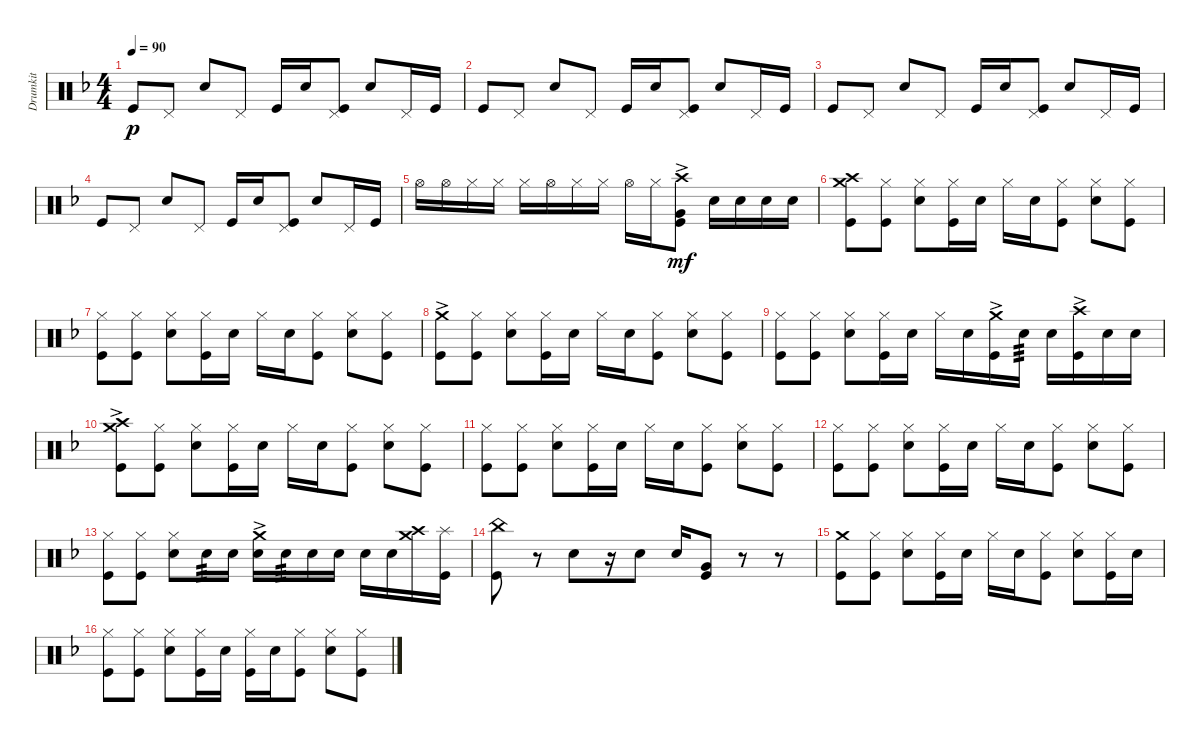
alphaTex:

\track ("Drumkit" "Drumkit") {instrument percussion}
\staff {score}
\articulation defaults
\ts (4 4)
\tempo 90
\clef neutral
\ks f "Kick (hit)".8{dy p} "Pedal Hi-Hat (hit)".8 "Snare (hit) 2".8 "Pedal Hi-Hat (hit)".8 "Kick (hit)".16 "Snare (hit) 2".16
("Kick (hit)" "Pedal Hi-Hat (hit)").8 "Snare (hit) 2".8 "Pedal Hi-Hat (hit)".16 "Kick (hit)".16 |
"Kick (hit)".8 "Pedal Hi-Hat (hit)".8 "Snare (hit) 2".8 "Pedal Hi-Hat (hit)".8 "Kick (hit)".16 "Snare (hit) 2".16 ("Kick (hit)" "Pedal Hi-Hat (hit)").8 "Snare (hit) 2".8 "Pedal Hi-Hat (hit)".16 "Kick (hit)".16 |
"Kick (hit)".8 "Pedal Hi-Hat (hit)".8 "Snare (hit) 2".8 "Pedal Hi-Hat (hit)".8 "Kick (hit)".16 "Snare (hit) 2".16 ("Kick (hit)" "Pedal Hi-Hat (hit)").8 "Snare (hit) 2".8 "Pedal Hi-Hat (hit)".16 "Kick (hit)".16 |
"Kick (hit)".8 "Pedal Hi-Hat (hit)".8 "Snare (hit) 2".8 "Pedal Hi-Hat (hit)".8 "Kick (hit)".16 "Snare (hit) 2".16 ("Kick (hit)" "Pedal Hi-Hat (hit)").8 "Snare (hit) 2".8 "Pedal Hi-Hat (hit)".16 "Kick (hit)".16 |
"Hi-Hat (open)".16 "Hi-Hat (open)".16 "Hi-Hat (closed)".16 "Hi-Hat (closed)".16 "Hi-Hat (closed)".16 "Hi-Hat (open)".16 "Hi-Hat (closed)".16 "Hi-Hat (closed)".16 "Hi-Hat (open)".16 "Hi-Hat (closed)".16 ("Kick (hit)" "Very Low Tom (hit)" "Crash high (hit)"{ac}).8{dy mf} "Snare (hit) 2".16 "Snare (hit) 2".16 "Snare (hit) 2".16 "Snare (hit) 2".16 |
("Kick (hit)" "Crash high (hit)" "Crash medium (hit)").8 ("Kick (hit)" "Hi-Hat (closed)").8 ("Snare (hit) 2" "Hi-Hat (closed)").8 ("Kick (hit)" "Hi-Hat (closed)").16 "Snare (hit) 2".16 "Hi-Hat (closed)".16 "Snare (hit) 2".16 ("Kick (hit)" "Hi-Hat (closed)").8 ("Snare (hit) 2" "Hi-Hat (closed)").8 ("Kick (hit)" "Hi-Hat (closed)").8 |
("Kick (hit)" "Hi-Hat (closed)").8 ("Kick (hit)" "Hi-Hat (closed)").8 ("Snare (hit) 2" "Hi-Hat (closed)").8 ("Kick (hit)" "Hi-Hat (closed)").16 "Snare (hit) 2".16 "Hi-Hat (closed)".16 "Snare (hit) 2".16 ("Kick (hit)" "Hi-Hat (closed)").8 ("Snare (hit) 2" "Hi-Hat (closed)").8 ("Kick (hit)" "Hi-Hat (closed)").8 |
("Kick (hit)" "Crash medium (hit)"{ac}).8 ("Kick (hit)" "Hi-Hat (closed)").8 ("Snare (hit) 2" "Hi-Hat (closed)").8 ("Kick (hit)" "Hi-Hat (closed)").16 "Snare (hit) 2".16 "Hi-Hat (closed)".16 "Snare (hit) 2".16 ("Kick (hit)" "Hi-Hat (closed)").8 ("Snare (hit) 2" "Hi-Hat (closed)").8 ("Kick (hit)" "Hi-Hat (closed)").8 |
("Kick (hit)" "Hi-Hat (closed)").8 ("Kick (hit)" "Hi-Hat (closed)").8 ("Snare (hit) 2" "Hi-Hat (closed)").8 ("Kick (hit)" "Hi-Hat (closed)").16 "Snare (hit) 2".16 "Hi-Hat (closed)".16 "Snare (hit) 2".16 ("Kick (hit)" "Crash medium (hit)"{ac}).16 "Snare (hit) 2".16{tp 3} "Snare (hit) 2".16 ("Kick (hit)" "Crash high (hit)"{ac}).16 "Snare (hit) 2".16 "Snare (hit) 2".16 |
("Kick (hit)" "Crash high (hit)"{ac} "Crash medium (hit)"{ac}).8 ("Kick (hit)" "Hi-Hat (closed)").8 ("Snare (hit) 2" "Hi-Hat (closed)").8 ("Kick (hit)" "Hi-Hat (closed)").16 "Snare (hit) 2".16 "Hi-Hat (closed)".16 "Snare (hit) 2".16 ("Kick (hit)" "Hi-Hat (closed)").8 ("Snare (hit) 2" "Hi-Hat (closed)").8 ("Kick (hit)" "Hi-Hat (closed)").8 |
("Kick (hit)" "Hi-Hat (closed)").8 ("Kick (hit)" "Hi-Hat (closed)").8 ("Snare (hit) 2" "Hi-Hat (closed)").8 ("Kick (hit)" "Hi-Hat (closed)").16 "Snare (hit) 2".16 "Hi-Hat (closed)".16 "Snare (hit) 2".16 ("Kick (hit)" "Hi-Hat (closed)").8 ("Snare (hit) 2" "Hi-Hat (closed)").8 ("Kick (hit)" "Hi-Hat (closed)").8 |
("Kick (hit)" "Hi-Hat (closed)").8 ("Kick (hit)" "Hi-Hat (closed)").8 ("Snare (hit) 2" "Hi-Hat (closed)").8 ("Kick (hit)" "Hi-Hat (closed)").16 "Snare (hit) 2".16 "Hi-Hat (closed)".16 "Snare (hit) 2".16 ("Kick (hit)" "Hi-Hat (closed)").8 ("Snare (hit) 2" "Hi-Hat (closed)").8 ("Kick (hit)" "Hi-Hat (closed)").8 |
("Kick (hit)" "Hi-Hat (closed)").8 ("Kick (hit)" "Hi-Hat (closed)").8 ("Snare (hit) 2" "Hi-Hat (closed)").8 "Snare (hit) 2".16{tp 3} "Snare (hit) 2".16 ("Snare (hit) 2" "Crash medium (hit)"{ac}).16 "Snare (hit) 2".16{tp 3} "Snare (hit) 2".16 "Snare (hit) 2".16 "Snare (hit) 2".16 "Snare (hit) 2".16 ("Crash high (hit)" "Crash medium (hit)").16 ("Splash (hit)" "Kick (hit)").16 |
("China (hit)" "Kick (hit)").8 r.8 "Snare (hit) 2".8 r.16 "Snare (hit) 2".8 "Snare (hit) 2".16 ("Kick (hit)" "Very Low Tom (hit)").8 r.8 r.8 |
("Kick (hit)" "Crash medium (hit)").8 ("Hi-Hat (closed)" "Kick (hit)").8 ("Snare (hit) 2" "Hi-Hat (closed)").8 ("Kick (hit)" "Hi-Hat (closed)").16 "Snare (hit) 2".16 "Hi-Hat (closed)".16 "Snare (hit) 2".16 ("Kick (hit)" "Hi-Hat (closed)").8 ("Snare (hit) 2" "Hi-Hat (closed)").8 ("Hi-Hat (closed)" "Kick (hit)").16 "Snare (hit) 2".16 |
("Kick (hit)" "Hi-Hat (closed)").8 ("Kick (hit)" "Hi-Hat (closed)").8 ("Snare (hit) 2" "Hi-Hat (closed)").8 ("Kick (hit)" "Hi-Hat (closed)").16 "Snare (hit) 2".16 ("Hi-Hat (closed)" "Kick (hit)").16 "Snare (hit) 2".16 ("Kick (hit)" "Hi-Hat (closed)").8 ("Snare (hit) 2" "Hi-Hat (closed)").8 ("Kick (hit)" "Hi-Hat (closed)").8
